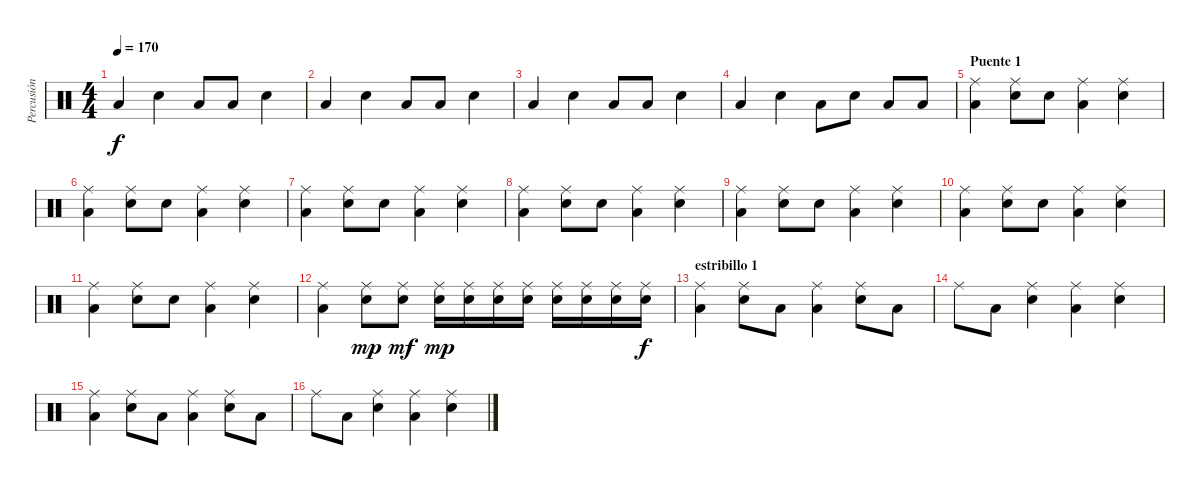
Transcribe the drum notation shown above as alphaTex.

\track ("Percusión" "Percusión") {instrument percussion}
\staff {score}
\articulation defaults
\ts (4 4)
\tempo 170
\clef neutral
\ks c "Low Floor Tom (hit)".4{dy f} "Snare (hit) 2".4 "Low Floor Tom (hit)".8 "Low Floor Tom (hit)".8 "Snare (hit) 2".4
|
"Low Floor Tom (hit)".4 "Snare (hit) 2".4 "Low Floor Tom (hit)".8 "Low Floor Tom (hit)".8 "Snare (hit) 2".4 |
"Low Floor Tom (hit)".4 "Snare (hit) 2".4 "Low Floor Tom (hit)".8 "Low Floor Tom (hit)".8 "Snare (hit) 2".4 |
"Low Floor Tom (hit)".4 "Snare (hit) 2".4 "Low Floor Tom (hit)".8 "Snare (hit) 2".8 "Low Floor Tom (hit)".8 "Low Floor Tom (hit)".8 |
\section ("" "Puente 1")
("Low Floor Tom (hit)" "Ride (middle)").4 ("Snare (hit) 2" "Ride (middle)").8 "Snare (hit) 2".8 ("Low Floor Tom (hit)" "Ride (middle)").4 ("Snare (hit) 2" "Ride (middle)").4 |
("Low Floor Tom (hit)" "Ride (middle)").4 ("Snare (hit) 2" "Ride (middle)").8 "Snare (hit) 2".8 ("Low Floor Tom (hit)" "Ride (middle)").4 ("Snare (hit) 2" "Ride (middle)").4 |
("Low Floor Tom (hit)" "Ride (middle)").4 ("Snare (hit) 2" "Ride (middle)").8 "Snare (hit) 2".8 ("Low Floor Tom (hit)" "Ride (middle)").4 ("Snare (hit) 2" "Ride (middle)").4 |
("Low Floor Tom (hit)" "Ride (middle)").4 ("Snare (hit) 2" "Ride (middle)").8 "Snare (hit) 2".8 ("Low Floor Tom (hit)" "Ride (middle)").4 ("Snare (hit) 2" "Ride (middle)").4 |
("Low Floor Tom (hit)" "Ride (middle)").4 ("Snare (hit) 2" "Ride (middle)").8 "Snare (hit) 2".8 ("Low Floor Tom (hit)" "Ride (middle)").4 ("Snare (hit) 2" "Ride (middle)").4 |
("Low Floor Tom (hit)" "Ride (middle)").4 ("Snare (hit) 2" "Ride (middle)").8 "Snare (hit) 2".8 ("Low Floor Tom (hit)" "Ride (middle)").4 ("Snare (hit) 2" "Ride (middle)").4 |
("Low Floor Tom (hit)" "Ride (middle)").4 ("Snare (hit) 2" "Ride (middle)").8 "Snare (hit) 2".8 ("Low Floor Tom (hit)" "Ride (middle)").4 ("Snare (hit) 2" "Ride (middle)").4 |
("Low Floor Tom (hit)" "Ride (middle)").4 ("Snare (hit) 2" "Ride (middle)").8{dy mp} ("Snare (hit) 2" "Ride (middle)").8{dy mf} ("Snare (hit) 2" "Ride (middle)").16{dy mp} ("Snare (hit) 2" "Ride (middle)").16 ("Snare (hit) 2" "Ride (middle)").16 ("Snare (hit) 2" "Ride (middle)").16 ("Snare (hit) 2" "Ride (middle)").16 ("Snare (hit) 2" "Ride (middle)").16 ("Snare (hit) 2" "Ride (middle)").16 ("Snare (hit) 2" "Ride (middle)").16{dy f} |
\section ("" "estribillo 1")
("Low Floor Tom (hit)" "Ride (middle)").4 ("Snare (hit) 2" "Ride (middle)").8 "Low Floor Tom (hit)".8 ("Low Floor Tom (hit)" "Ride (middle)").4 ("Snare (hit) 2" "Ride (middle)").8 "Low Floor Tom (hit)".8 |
"Ride (middle)".8 "Low Floor Tom (hit)".8 ("Snare (hit) 2" "Ride (middle)").4 ("Low Floor Tom (hit)" "Ride (middle)").4 ("Snare (hit) 2" "Ride (middle)").4 |
("Low Floor Tom (hit)" "Ride (middle)").4 ("Snare (hit) 2" "Ride (middle)").8 "Low Floor Tom (hit)".8 ("Low Floor Tom (hit)" "Ride (middle)").4 ("Snare (hit) 2" "Ride (middle)").8 "Low Floor Tom (hit)".8 |
"Ride (middle)".8 "Low Floor Tom (hit)".8 ("Snare (hit) 2" "Ride (middle)").4 ("Low Floor Tom (hit)" "Ride (middle)").4 ("Snare (hit) 2" "Ride (middle)").4
